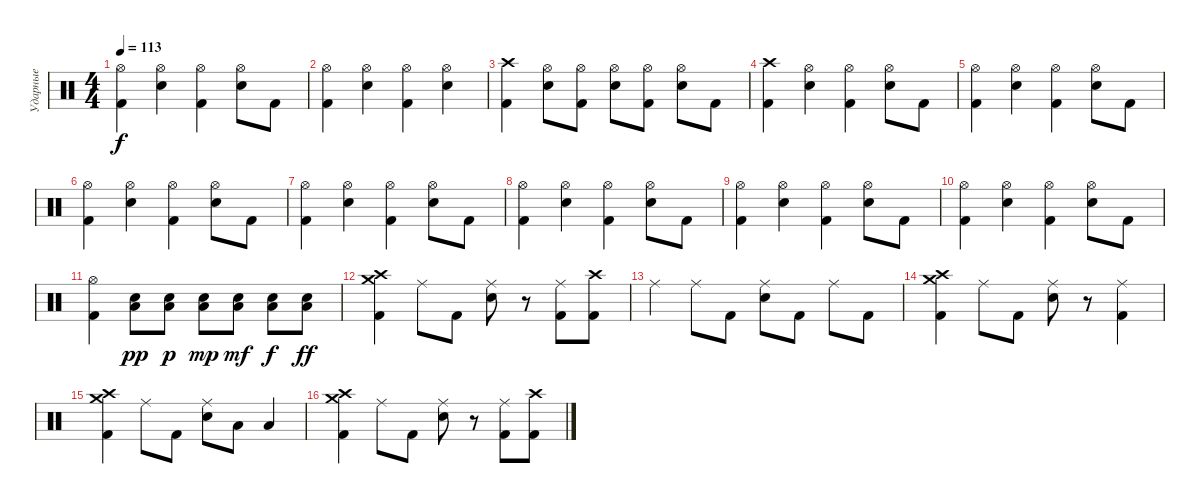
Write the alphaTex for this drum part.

\track ("Ударные" "Ударные") {instrument percussion}
\staff {score}
\articulation defaults
\ts (4 4)
\tempo 113
\clef neutral
\ks c
("Kick (hit) 2" "Hi-Hat (open)").4{dy f} ("Electric Snare (hit)" "Hi-Hat (open)").4 ("Kick (hit) 2" "Hi-Hat (open)").4 ("Electric Snare (hit)" "Hi-Hat (open)").8 "Kick (hit) 2".8 |
("Kick (hit) 2" "Hi-Hat (open)").4 ("Electric Snare (hit)" "Hi-Hat (open)").4 ("Kick (hit) 2" "Hi-Hat (open)").4 ("Electric Snare (hit)" "Hi-Hat (open)").4 |
("Kick (hit) 2" "Crash high (hit)").4 ("Electric Snare (hit)" "Hi-Hat (open)").8 ("Kick (hit) 2" "Hi-Hat (open)").8 ("Electric Snare (hit)" "Hi-Hat (open)").8 ("Kick (hit) 2" "Hi-Hat (open)").8 ("Electric Snare (hit)" "Hi-Hat (open)").8 "Kick (hit) 2".8 |
("Kick (hit) 2" "Crash high (hit)").4 ("Electric Snare (hit)" "Hi-Hat (open)").4 ("Kick (hit) 2" "Hi-Hat (open)").4 ("Electric Snare (hit)" "Hi-Hat (open)").8 "Kick (hit) 2".8 |
("Kick (hit) 2" "Hi-Hat (open)").4 ("Electric Snare (hit)" "Hi-Hat (open)").4 ("Kick (hit) 2" "Hi-Hat (open)").4 ("Electric Snare (hit)" "Hi-Hat (open)").8 "Kick (hit) 2".8 |
("Kick (hit) 2" "Hi-Hat (open)").4 ("Electric Snare (hit)" "Hi-Hat (open)").4 ("Kick (hit) 2" "Hi-Hat (open)").4 ("Electric Snare (hit)" "Hi-Hat (open)").8 "Kick (hit) 2".8 |
("Kick (hit) 2" "Hi-Hat (open)").4 ("Electric Snare (hit)" "Hi-Hat (open)").4 ("Kick (hit) 2" "Hi-Hat (open)").4 ("Electric Snare (hit)" "Hi-Hat (open)").8 "Kick (hit) 2".8 |
("Kick (hit) 2" "Hi-Hat (open)").4 ("Electric Snare (hit)" "Hi-Hat (open)").4 ("Kick (hit) 2" "Hi-Hat (open)").4 ("Electric Snare (hit)" "Hi-Hat (open)").8 "Kick (hit) 2".8 |
("Kick (hit) 2" "Hi-Hat (open)").4 ("Electric Snare (hit)" "Hi-Hat (open)").4 ("Kick (hit) 2" "Hi-Hat (open)").4 ("Electric Snare (hit)" "Hi-Hat (open)").8 "Kick (hit) 2".8 |
("Kick (hit) 2" "Hi-Hat (open)").4 ("Electric Snare (hit)" "Hi-Hat (open)").4 ("Kick (hit) 2" "Hi-Hat (open)").4 ("Electric Snare (hit)" "Hi-Hat (open)").8 "Kick (hit) 2".8 |
("Kick (hit) 2" "Hi-Hat (open)").4 ("Electric Snare (hit)" "Low Tom (hit)").8{dy pp} ("Electric Snare (hit)" "Low Tom (hit)").8{dy p} ("Electric Snare (hit)" "Low Tom (hit)").8{dy mp} ("Electric Snare (hit)" "Low Tom (hit)").8{dy mf} ("Electric Snare (hit)" "Low Tom (hit)").8{dy f} ("Electric Snare (hit)" "Low Tom (hit)").8{dy ff} |
("Kick (hit) 2" "Crash high (hit)" "Crash medium (hit)").4 "Ride (middle)".8 "Kick (hit) 2".8 ("Electric Snare (hit)" "Ride (middle)").8 r.8 ("Kick (hit) 2" "Ride (middle)").8 ("Kick (hit) 2" "Crash high (hit)").8 |
"Ride (middle)".4 "Ride (middle)".8 "Kick (hit) 2".8 ("Electric Snare (hit)" "Ride (middle)").8 "Kick (hit) 2".8 "Ride (middle)".8 "Kick (hit) 2".8 |
("Kick (hit) 2" "Crash high (hit)" "Crash medium (hit)").4 "Ride (middle)".8 "Kick (hit) 2".8 ("Electric Snare (hit)" "Ride (middle)").8 r.8 ("Kick (hit) 2" "Ride (middle)").4 |
("Kick (hit) 2" "Crash high (hit)" "Crash medium (hit)").4 "Ride (middle)".8 "Kick (hit) 2".8 ("Electric Snare (hit)" "Ride (middle)").8 "Low Tom (hit)".8 "Low Floor Tom (hit)".4 |
("Kick (hit) 2" "Crash high (hit)" "Crash medium (hit)").4 "Ride (middle)".8 "Kick (hit) 2".8 ("Electric Snare (hit)" "Ride (middle)").8 r.8 ("Kick (hit) 2" "Ride (middle)").8 ("Kick (hit) 2" "Crash high (hit)").8
